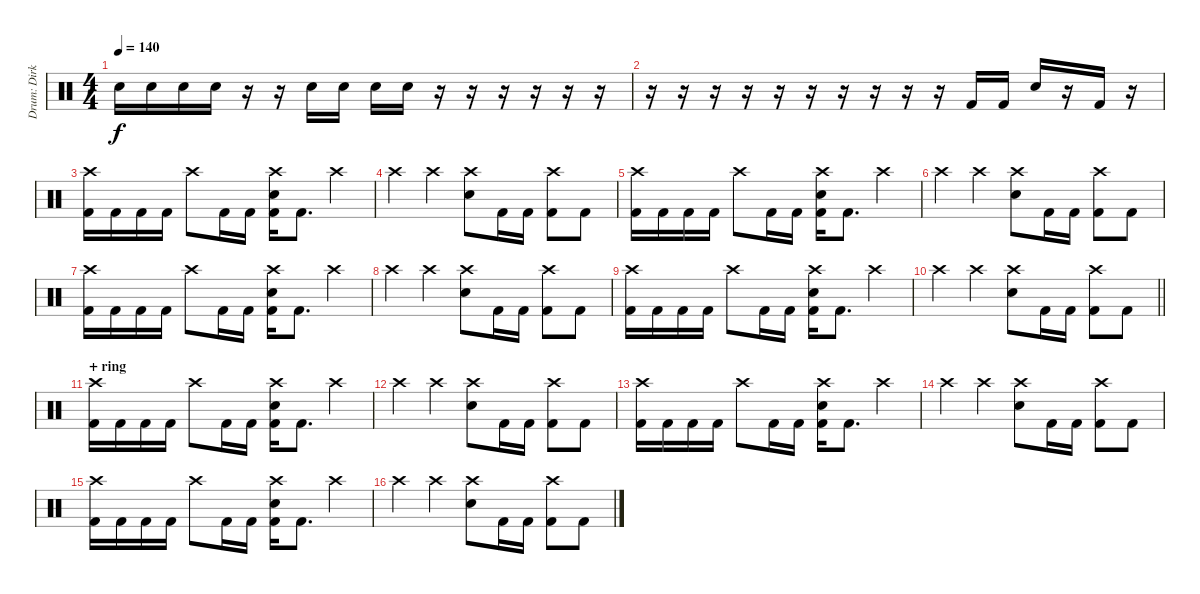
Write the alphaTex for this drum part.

\track ("Drum: Dirk" "Drum: Dirk") {instrument percussion}
\staff {score}
\articulation defaults
\ts (4 4)
\tempo 140
\clef neutral
\ks c "Electric Snare (hit)".16{dy f} "Electric Snare (hit)".16 "Electric Snare (hit)".16 "Electric Snare (hit)".16
r.16 r.16 "Electric Snare (hit)".16 "Electric Snare (hit)".16 "Electric Snare (hit)".16 "Electric Snare (hit)".16 r.16 r.16 r.16 r.16 r.16 r.16 |
r.16 r.16 r.16 r.16 r.16 r.16 r.16 r.16 r.16 r.16 "Kick (hit) 2".16 "Kick (hit) 2".16 "Electric Snare (hit)".16 r.16 "Kick (hit) 2".16 r.16 |
("Crash high (hit)" "Kick (hit) 2").16 "Kick (hit) 2".16 "Kick (hit) 2".16 "Kick (hit) 2".16 "Crash high (hit)".8 "Kick (hit) 2".16 "Kick (hit) 2".16 ("Crash high (hit)" "Electric Snare (hit)" "Kick (hit) 2").16 "Kick (hit) 2".8{d} "Crash high (hit)".4 |
"Crash high (hit)".4 "Crash high (hit)".4 ("Crash high (hit)" "Electric Snare (hit)").8 "Kick (hit) 2".16 "Kick (hit) 2".16 ("Crash high (hit)" "Kick (hit) 2").8 "Kick (hit) 2".8 |
("Crash high (hit)" "Kick (hit) 2").16 "Kick (hit) 2".16 "Kick (hit) 2".16 "Kick (hit) 2".16 "Crash high (hit)".8 "Kick (hit) 2".16 "Kick (hit) 2".16 ("Crash high (hit)" "Electric Snare (hit)" "Kick (hit) 2").16 "Kick (hit) 2".8{d} "Crash high (hit)".4 |
"Crash high (hit)".4 "Crash high (hit)".4 ("Crash high (hit)" "Electric Snare (hit)").8 "Kick (hit) 2".16 "Kick (hit) 2".16 ("Crash high (hit)" "Kick (hit) 2").8 "Kick (hit) 2".8 |
("Crash high (hit)" "Kick (hit) 2").16 "Kick (hit) 2".16 "Kick (hit) 2".16 "Kick (hit) 2".16 "Crash high (hit)".8 "Kick (hit) 2".16 "Kick (hit) 2".16 ("Crash high (hit)" "Electric Snare (hit)" "Kick (hit) 2").16 "Kick (hit) 2".8{d} "Crash high (hit)".4 |
"Crash high (hit)".4 "Crash high (hit)".4 ("Crash high (hit)" "Electric Snare (hit)").8 "Kick (hit) 2".16 "Kick (hit) 2".16 ("Crash high (hit)" "Kick (hit) 2").8 "Kick (hit) 2".8 |
("Crash high (hit)" "Kick (hit) 2").16 "Kick (hit) 2".16 "Kick (hit) 2".16 "Kick (hit) 2".16 "Crash high (hit)".8 "Kick (hit) 2".16 "Kick (hit) 2".16 ("Crash high (hit)" "Electric Snare (hit)" "Kick (hit) 2").16 "Kick (hit) 2".8{d} "Crash high (hit)".4 |
\barLineRight lightlight "Crash high (hit)".4 "Crash high (hit)".4
("Crash high (hit)" "Electric Snare (hit)").8 "Kick (hit) 2".16 "Kick (hit) 2".16 ("Crash high (hit)" "Kick (hit) 2").8 "Kick (hit) 2".8 |
\section ("" "+ ring")
("Crash high (hit)" "Kick (hit) 2").16 "Kick (hit) 2".16 "Kick (hit) 2".16 "Kick (hit) 2".16 "Crash high (hit)".8 "Kick (hit) 2".16 "Kick (hit) 2".16 ("Crash high (hit)" "Electric Snare (hit)" "Kick (hit) 2").16 "Kick (hit) 2".8{d} "Crash high (hit)".4 |
"Crash high (hit)".4 "Crash high (hit)".4 ("Crash high (hit)" "Electric Snare (hit)").8 "Kick (hit) 2".16 "Kick (hit) 2".16 ("Crash high (hit)" "Kick (hit) 2").8 "Kick (hit) 2".8 |
("Crash high (hit)" "Kick (hit) 2").16 "Kick (hit) 2".16 "Kick (hit) 2".16 "Kick (hit) 2".16 "Crash high (hit)".8 "Kick (hit) 2".16 "Kick (hit) 2".16 ("Crash high (hit)" "Electric Snare (hit)" "Kick (hit) 2").16 "Kick (hit) 2".8{d} "Crash high (hit)".4 |
"Crash high (hit)".4 "Crash high (hit)".4 ("Crash high (hit)" "Electric Snare (hit)").8 "Kick (hit) 2".16 "Kick (hit) 2".16 ("Crash high (hit)" "Kick (hit) 2").8 "Kick (hit) 2".8 |
("Crash high (hit)" "Kick (hit) 2").16 "Kick (hit) 2".16 "Kick (hit) 2".16 "Kick (hit) 2".16 "Crash high (hit)".8 "Kick (hit) 2".16 "Kick (hit) 2".16 ("Crash high (hit)" "Electric Snare (hit)" "Kick (hit) 2").16 "Kick (hit) 2".8{d} "Crash high (hit)".4 |
"Crash high (hit)".4 "Crash high (hit)".4 ("Crash high (hit)" "Electric Snare (hit)").8 "Kick (hit) 2".16 "Kick (hit) 2".16 ("Crash high (hit)" "Kick (hit) 2").8 "Kick (hit) 2".8
